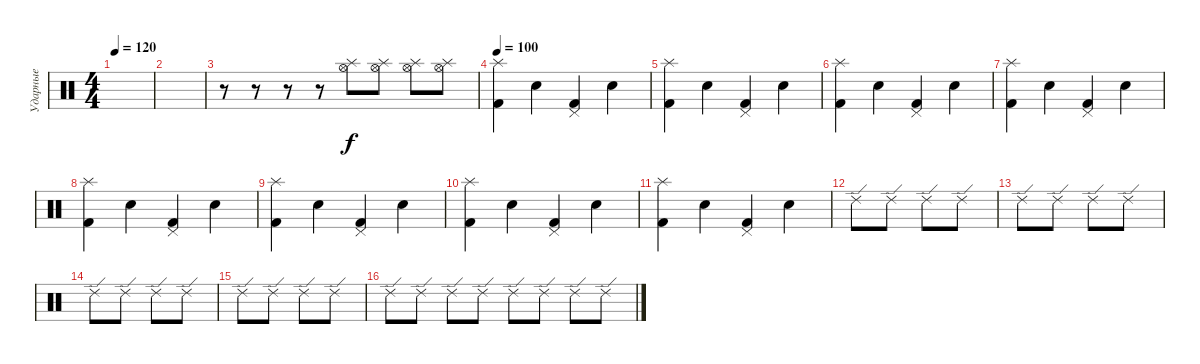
\track ("Ударные" "Ударные") {instrument percussion}
\staff {score}
\articulation defaults
\ts (4 4)
\tempo 120
\clef neutral
\ks c
|
|
r.8 r.8 r.8 r.8 ("Splash (hit)" "Hi-Hat (open)").8 ("Splash (hit)" "Hi-Hat (open)").8 ("Splash (hit)" "Hi-Hat (open)").8 ("Splash (hit)" "Hi-Hat (open)").8 |
\tempo 100
("Splash (hit)" "Kick (hit) 2").4{dy f} "Snare (hit) 2".4 ("Pedal Hi-Hat (hit)" "Kick (hit) 2").4 "Snare (hit) 2".4 |
("Splash (hit)" "Kick (hit) 2").4 "Snare (hit) 2".4 ("Pedal Hi-Hat (hit)" "Kick (hit) 2").4 "Snare (hit) 2".4 |
("Splash (hit)" "Kick (hit) 2").4 "Snare (hit) 2".4 ("Pedal Hi-Hat (hit)" "Kick (hit) 2").4 "Snare (hit) 2".4 |
("Splash (hit)" "Kick (hit) 2").4 "Snare (hit) 2".4 ("Pedal Hi-Hat (hit)" "Kick (hit) 2").4 "Snare (hit) 2".4 |
("Splash (hit)" "Kick (hit) 2").4 "Snare (hit) 2".4 ("Pedal Hi-Hat (hit)" "Kick (hit) 2").4 "Snare (hit) 2".4 |
("Splash (hit)" "Kick (hit) 2").4 "Snare (hit) 2".4 ("Pedal Hi-Hat (hit)" "Kick (hit) 2").4 "Snare (hit) 2".4 |
("Splash (hit)" "Kick (hit) 2").4 "Snare (hit) 2".4 ("Pedal Hi-Hat (hit)" "Kick (hit) 2").4 "Snare (hit) 2".4 |
("Splash (hit)" "Kick (hit) 2").4 "Snare (hit) 2".4 ("Pedal Hi-Hat (hit)" "Kick (hit) 2").4 "Snare (hit) 2".4 |
"Ride (edge) 2".8 "Ride (edge) 2".8 "Ride (edge) 2".8 "Ride (edge) 2".8 |
"Ride (edge) 2".8 "Ride (edge) 2".8 "Ride (edge) 2".8 "Ride (edge) 2".8 |
"Ride (edge) 2".8 "Ride (edge) 2".8 "Ride (edge) 2".8 "Ride (edge) 2".8 |
"Ride (edge) 2".8 "Ride (edge) 2".8 "Ride (edge) 2".8 "Ride (edge) 2".8 |
"Ride (edge) 2".8 "Ride (edge) 2".8 "Ride (edge) 2".8 "Ride (edge) 2".8 "Ride (edge) 2".8 "Ride (edge) 2".8 "Ride (edge) 2".8 "Ride (edge) 2".8
